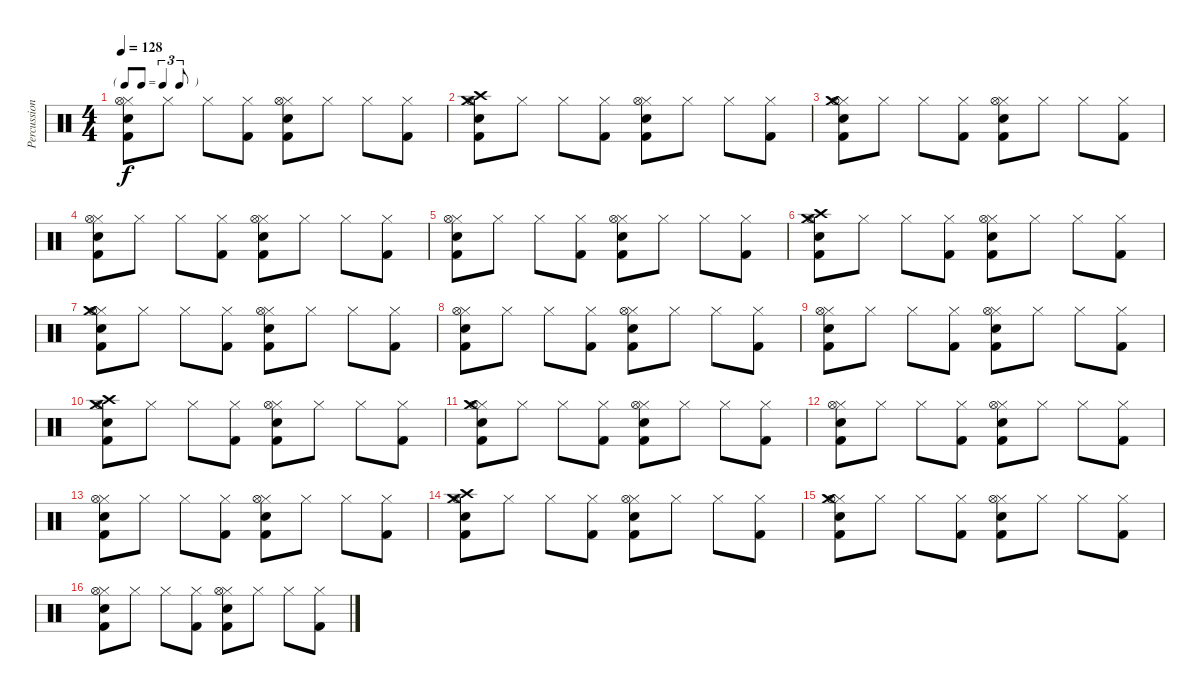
\track ("Percussion" "Percussion") {instrument percussion}
\staff {score}
\articulation defaults
\ts (4 4)
\tf triplet8th
\tempo 128
\clef neutral
\ks c
("Kick (hit) 2" "Electric Snare (hit)" "Hi-Hat (closed)" "Hi-Hat (open)").8{dy f} "Hi-Hat (closed)".8 "Hi-Hat (closed)".8 ("Kick (hit) 2" "Hi-Hat (closed)").8 ("Kick (hit) 2" "Electric Snare (hit)" "Hi-Hat (closed)" "Hi-Hat (open)").8 "Hi-Hat (closed)".8 "Hi-Hat (closed)".8 ("Kick (hit) 2" "Hi-Hat (closed)").8 |
("Kick (hit) 2" "Electric Snare (hit)" "Crash medium (hit)" "Crash high (hit)" "Hi-Hat (open)").8 "Hi-Hat (closed)".8 "Hi-Hat (closed)".8 ("Kick (hit) 2" "Hi-Hat (closed)").8 ("Kick (hit) 2" "Electric Snare (hit)" "Hi-Hat (closed)" "Hi-Hat (open)").8 "Hi-Hat (closed)".8 "Hi-Hat (closed)".8 ("Kick (hit) 2" "Hi-Hat (closed)").8 |
("Kick (hit) 2" "Electric Snare (hit)" "Hi-Hat (closed)" "Crash medium (hit)" "Hi-Hat (open)").8 "Hi-Hat (closed)".8 "Hi-Hat (closed)".8 ("Kick (hit) 2" "Hi-Hat (closed)").8 ("Kick (hit) 2" "Electric Snare (hit)" "Hi-Hat (closed)" "Hi-Hat (open)").8 "Hi-Hat (closed)".8 "Hi-Hat (closed)".8 ("Kick (hit) 2" "Hi-Hat (closed)").8 |
("Kick (hit) 2" "Electric Snare (hit)" "Hi-Hat (closed)" "Hi-Hat (open)").8 "Hi-Hat (closed)".8 "Hi-Hat (closed)".8 ("Kick (hit) 2" "Hi-Hat (closed)").8 ("Kick (hit) 2" "Electric Snare (hit)" "Hi-Hat (closed)" "Hi-Hat (open)").8 "Hi-Hat (closed)".8 "Hi-Hat (closed)".8 ("Kick (hit) 2" "Hi-Hat (closed)").8 |
("Kick (hit) 2" "Electric Snare (hit)" "Hi-Hat (closed)" "Hi-Hat (open)").8 "Hi-Hat (closed)".8 "Hi-Hat (closed)".8 ("Kick (hit) 2" "Hi-Hat (closed)").8 ("Kick (hit) 2" "Electric Snare (hit)" "Hi-Hat (closed)" "Hi-Hat (open)").8 "Hi-Hat (closed)".8 "Hi-Hat (closed)".8 ("Kick (hit) 2" "Hi-Hat (closed)").8 |
("Kick (hit) 2" "Electric Snare (hit)" "Crash medium (hit)" "Crash high (hit)" "Hi-Hat (open)").8 "Hi-Hat (closed)".8 "Hi-Hat (closed)".8 ("Kick (hit) 2" "Hi-Hat (closed)").8 ("Kick (hit) 2" "Electric Snare (hit)" "Hi-Hat (closed)" "Hi-Hat (open)").8 "Hi-Hat (closed)".8 "Hi-Hat (closed)".8 ("Kick (hit) 2" "Hi-Hat (closed)").8 |
("Kick (hit) 2" "Electric Snare (hit)" "Hi-Hat (closed)" "Crash medium (hit)" "Hi-Hat (open)").8 "Hi-Hat (closed)".8 "Hi-Hat (closed)".8 ("Kick (hit) 2" "Hi-Hat (closed)").8 ("Kick (hit) 2" "Electric Snare (hit)" "Hi-Hat (closed)" "Hi-Hat (open)").8 "Hi-Hat (closed)".8 "Hi-Hat (closed)".8 ("Kick (hit) 2" "Hi-Hat (closed)").8 |
("Kick (hit) 2" "Electric Snare (hit)" "Hi-Hat (closed)" "Hi-Hat (open)").8 "Hi-Hat (closed)".8 "Hi-Hat (closed)".8 ("Kick (hit) 2" "Hi-Hat (closed)").8 ("Kick (hit) 2" "Electric Snare (hit)" "Hi-Hat (closed)" "Hi-Hat (open)").8 "Hi-Hat (closed)".8 "Hi-Hat (closed)".8 ("Kick (hit) 2" "Hi-Hat (closed)").8 |
("Kick (hit) 2" "Electric Snare (hit)" "Hi-Hat (closed)" "Hi-Hat (open)").8 "Hi-Hat (closed)".8 "Hi-Hat (closed)".8 ("Kick (hit) 2" "Hi-Hat (closed)").8 ("Kick (hit) 2" "Electric Snare (hit)" "Hi-Hat (closed)" "Hi-Hat (open)").8 "Hi-Hat (closed)".8 "Hi-Hat (closed)".8 ("Kick (hit) 2" "Hi-Hat (closed)").8 |
("Kick (hit) 2" "Electric Snare (hit)" "Crash medium (hit)" "Crash high (hit)" "Hi-Hat (open)").8 "Hi-Hat (closed)".8 "Hi-Hat (closed)".8 ("Kick (hit) 2" "Hi-Hat (closed)").8 ("Kick (hit) 2" "Electric Snare (hit)" "Hi-Hat (closed)" "Hi-Hat (open)").8 "Hi-Hat (closed)".8 "Hi-Hat (closed)".8 ("Kick (hit) 2" "Hi-Hat (closed)").8 |
("Kick (hit) 2" "Electric Snare (hit)" "Hi-Hat (closed)" "Crash medium (hit)" "Hi-Hat (open)").8 "Hi-Hat (closed)".8 "Hi-Hat (closed)".8 ("Kick (hit) 2" "Hi-Hat (closed)").8 ("Kick (hit) 2" "Electric Snare (hit)" "Hi-Hat (closed)" "Hi-Hat (open)").8 "Hi-Hat (closed)".8 "Hi-Hat (closed)".8 ("Kick (hit) 2" "Hi-Hat (closed)").8 |
("Kick (hit) 2" "Electric Snare (hit)" "Hi-Hat (closed)" "Hi-Hat (open)").8 "Hi-Hat (closed)".8 "Hi-Hat (closed)".8 ("Kick (hit) 2" "Hi-Hat (closed)").8 ("Kick (hit) 2" "Electric Snare (hit)" "Hi-Hat (closed)" "Hi-Hat (open)").8 "Hi-Hat (closed)".8 "Hi-Hat (closed)".8 ("Kick (hit) 2" "Hi-Hat (closed)").8 |
("Kick (hit) 2" "Electric Snare (hit)" "Hi-Hat (closed)" "Hi-Hat (open)").8 "Hi-Hat (closed)".8 "Hi-Hat (closed)".8 ("Kick (hit) 2" "Hi-Hat (closed)").8 ("Kick (hit) 2" "Electric Snare (hit)" "Hi-Hat (closed)" "Hi-Hat (open)").8 "Hi-Hat (closed)".8 "Hi-Hat (closed)".8 ("Kick (hit) 2" "Hi-Hat (closed)").8 |
("Kick (hit) 2" "Electric Snare (hit)" "Crash medium (hit)" "Crash high (hit)" "Hi-Hat (open)").8 "Hi-Hat (closed)".8 "Hi-Hat (closed)".8 ("Kick (hit) 2" "Hi-Hat (closed)").8 ("Kick (hit) 2" "Electric Snare (hit)" "Hi-Hat (closed)" "Hi-Hat (open)").8 "Hi-Hat (closed)".8 "Hi-Hat (closed)".8 ("Kick (hit) 2" "Hi-Hat (closed)").8 |
("Kick (hit) 2" "Electric Snare (hit)" "Hi-Hat (closed)" "Crash medium (hit)" "Hi-Hat (open)").8 "Hi-Hat (closed)".8 "Hi-Hat (closed)".8 ("Kick (hit) 2" "Hi-Hat (closed)").8 ("Kick (hit) 2" "Electric Snare (hit)" "Hi-Hat (closed)" "Hi-Hat (open)").8 "Hi-Hat (closed)".8 "Hi-Hat (closed)".8 ("Kick (hit) 2" "Hi-Hat (closed)").8 |
("Kick (hit) 2" "Electric Snare (hit)" "Hi-Hat (closed)" "Hi-Hat (open)").8 "Hi-Hat (closed)".8 "Hi-Hat (closed)".8 ("Kick (hit) 2" "Hi-Hat (closed)").8 ("Kick (hit) 2" "Electric Snare (hit)" "Hi-Hat (closed)" "Hi-Hat (open)").8 "Hi-Hat (closed)".8 "Hi-Hat (closed)".8 ("Kick (hit) 2" "Hi-Hat (closed)").8
